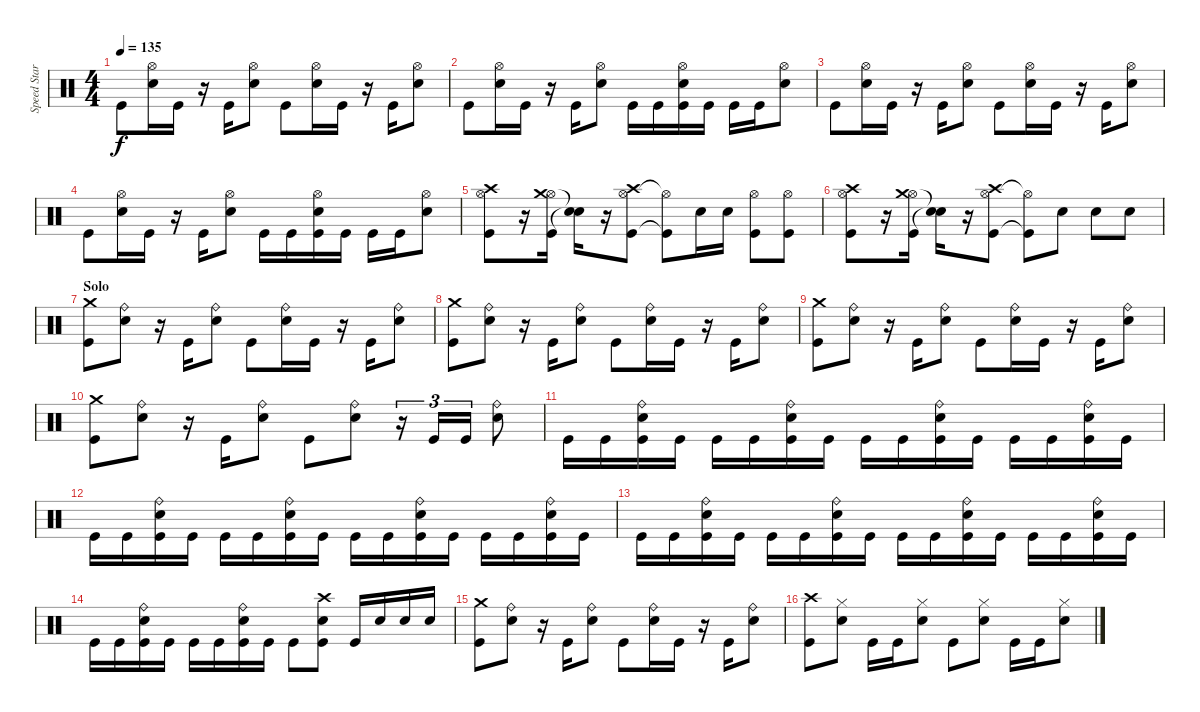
\track ("Speed Star" "Speed Star") {instrument percussion}
\staff {score}
\articulation defaults
\ts (4 4)
\tempo 135
\clef neutral
\ks c "Kick (hit)".8{dy f}
("Snare (hit) 2" "Hi-Hat (open)").16 "Kick (hit)".16 r.16 "Kick (hit)".16 ("Snare (hit) 2" "Hi-Hat (open)").8 "Kick (hit)".8 ("Snare (hit) 2" "Hi-Hat (open)").16 "Kick (hit)".16 r.16 "Kick (hit)".16 ("Snare (hit) 2" "Hi-Hat (open)").8 |
"Kick (hit)".8 ("Snare (hit) 2" "Hi-Hat (open)").16 "Kick (hit)".16 r.16 "Kick (hit)".16 ("Snare (hit) 2" "Hi-Hat (open)").8 "Kick (hit)".16 "Kick (hit)".16 ("Kick (hit)" "Snare (hit) 2" "Hi-Hat (open)").16 "Kick (hit)".16 "Kick (hit)".16 "Kick (hit)".16 ("Snare (hit) 2" "Hi-Hat (open)").8 |
"Kick (hit)".8 ("Snare (hit) 2" "Hi-Hat (open)").16 "Kick (hit)".16 r.16 "Kick (hit)".16 ("Snare (hit) 2" "Hi-Hat (open)").8 "Kick (hit)".8 ("Snare (hit) 2" "Hi-Hat (open)").16 "Kick (hit)".16 r.16 "Kick (hit)".16 ("Snare (hit) 2" "Hi-Hat (open)").8 |
"Kick (hit)".8 ("Snare (hit) 2" "Hi-Hat (open)").16 "Kick (hit)".16 r.16 "Kick (hit)".16 ("Snare (hit) 2" "Hi-Hat (open)").8 "Kick (hit)".16 "Kick (hit)".16 ("Kick (hit)" "Snare (hit) 2" "Hi-Hat (open)").16 "Kick (hit)".16 "Kick (hit)".16 "Kick (hit)".16 ("Snare (hit) 2" "Hi-Hat (open)").8 |
("Kick (hit)" "Hi-Hat (open)" "Crash high (hit)").8 r.16 ("Kick (hit)" "Hi-Hat (open)" "Crash medium (hit)").16 ("Snare (hit)"{t} "Snare (hit)"{t}).16 r.16 ("Kick (hit)" "Hi-Hat (open)" "Crash high (hit)").8 ("Kick (hit)"{t} "Hi-Hat (open)"{t}).8 "Snare (hit) 2".16 "Snare (hit) 2".16 ("Kick (hit)" "Hi-Hat (open)").8 ("Kick (hit)" "Hi-Hat (open)").8 |
("Kick (hit)" "Hi-Hat (open)" "Crash high (hit)").8 r.16 ("Kick (hit)" "Hi-Hat (open)" "Crash medium (hit)").16 ("Snare (hit)"{t} "Snare (hit)"{t}).16 r.16 ("Kick (hit)" "Hi-Hat (open)" "Crash high (hit)").8 ("Kick (hit)"{t} "Hi-Hat (open)"{t}).8 "Snare (hit) 2".8 "Snare (hit) 2".8 "Snare (hit) 2".8 |
\section ("" "Solo")
("Kick (hit)" "Crash medium (hit)").8 ("Snare (hit) 2" "Ride (bell)").8 r.16 "Kick (hit)".16 ("Snare (hit) 2" "Ride (bell)").8 "Kick (hit)".8 ("Snare (hit) 2" "Ride (bell)").16 "Kick (hit)".16 r.16 "Kick (hit)".16 ("Snare (hit) 2" "Ride (bell)").8 |
("Kick (hit)" "Crash medium (hit)").8 ("Snare (hit) 2" "Ride (bell)").8 r.16 "Kick (hit)".16 ("Snare (hit) 2" "Ride (bell)").8 "Kick (hit)".8 ("Snare (hit) 2" "Ride (bell)").16 "Kick (hit)".16 r.16 "Kick (hit)".16 ("Snare (hit) 2" "Ride (bell)").8 |
("Kick (hit)" "Crash medium (hit)").8 ("Snare (hit) 2" "Ride (bell)").8 r.16 "Kick (hit)".16 ("Snare (hit) 2" "Ride (bell)").8 "Kick (hit)".8 ("Snare (hit) 2" "Ride (bell)").16 "Kick (hit)".16 r.16 "Kick (hit)".16 ("Snare (hit) 2" "Ride (bell)").8 |
("Kick (hit)" "Crash medium (hit)").8 ("Snare (hit) 2" "Ride (bell)").8 r.16 "Kick (hit)".16 ("Snare (hit) 2" "Ride (bell)").8 "Kick (hit)".8 ("Snare (hit) 2" "Ride (bell)").8 r.16{tu (3 2)} "Kick (hit)".16{tu (3 2)} "Kick (hit)".16{tu (3 2)} ("Snare (hit) 2" "Ride (bell)").8 |
"Kick (hit)".16 "Kick (hit)".16 ("Kick (hit)" "Snare (hit) 2" "Ride (bell)").16 "Kick (hit)".16 "Kick (hit)".16 "Kick (hit)".16 ("Kick (hit)" "Snare (hit) 2" "Ride (bell)").16 "Kick (hit)".16 "Kick (hit)".16 "Kick (hit)".16 ("Kick (hit)" "Snare (hit) 2" "Ride (bell)").16 "Kick (hit)".16 "Kick (hit)".16 "Kick (hit)".16 ("Kick (hit)" "Snare (hit) 2" "Ride (bell)").16 "Kick (hit)".16 |
"Kick (hit)".16 "Kick (hit)".16 ("Kick (hit)" "Snare (hit) 2" "Ride (bell)").16 "Kick (hit)".16 "Kick (hit)".16 "Kick (hit)".16 ("Kick (hit)" "Snare (hit) 2" "Ride (bell)").16 "Kick (hit)".16 "Kick (hit)".16 "Kick (hit)".16 ("Kick (hit)" "Snare (hit) 2" "Ride (bell)").16 "Kick (hit)".16 "Kick (hit)".16 "Kick (hit)".16 ("Kick (hit)" "Snare (hit) 2" "Ride (bell)").16 "Kick (hit)".16 |
"Kick (hit)".16 "Kick (hit)".16 ("Kick (hit)" "Snare (hit) 2" "Ride (bell)").16 "Kick (hit)".16 "Kick (hit)".16 "Kick (hit)".16 ("Kick (hit)" "Snare (hit) 2" "Ride (bell)").16 "Kick (hit)".16 "Kick (hit)".16 "Kick (hit)".16 ("Kick (hit)" "Snare (hit) 2" "Ride (bell)").16 "Kick (hit)".16 "Kick (hit)".16 "Kick (hit)".16 ("Kick (hit)" "Snare (hit) 2" "Ride (bell)").16 "Kick (hit)".16 |
"Kick (hit)".16 "Kick (hit)".16 ("Kick (hit)" "Snare (hit) 2" "Ride (bell)").16 "Kick (hit)".16 "Kick (hit)".16 "Kick (hit)".16 ("Kick (hit)" "Snare (hit) 2" "Ride (bell)").16 "Kick (hit)".16 "Kick (hit)".8 ("Kick (hit)" "Snare (hit) 2" "Crash high (hit)").8 "Kick (hit)".16 "Snare (hit) 2".16 "Snare (hit) 2".16 "Snare (hit) 2".16 |
("Kick (hit)" "Crash medium (hit)").8 ("Snare (hit) 2" "Ride (bell)").8 r.16 "Kick (hit)".16 ("Snare (hit) 2" "Ride (bell)").8 "Kick (hit)".8 ("Snare (hit) 2" "Ride (bell)").16 "Kick (hit)".16 r.16 "Kick (hit)".16 ("Snare (hit) 2" "Ride (bell)").8 |
("Kick (hit)" "Crash high (hit)").8 ("Snare (hit) 2" "Hi-Hat (closed)").8 "Kick (hit)".16 "Kick (hit)".16 ("Snare (hit) 2" "Hi-Hat (closed)").8 "Kick (hit)".8 ("Snare (hit) 2" "Hi-Hat (closed)").8 "Kick (hit)".16 "Kick (hit)".16 ("Snare (hit) 2" "Hi-Hat (closed)").8
